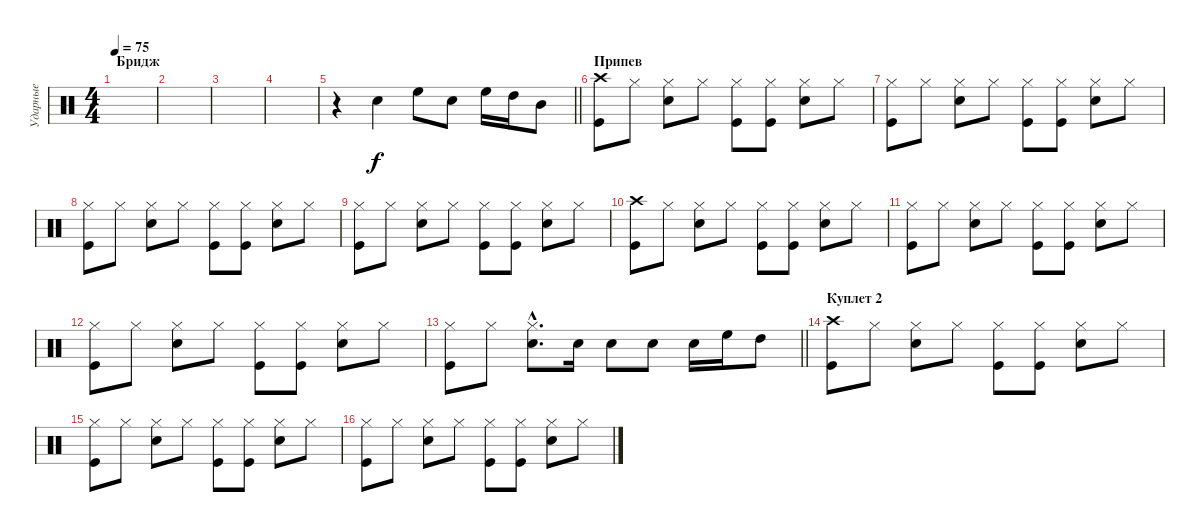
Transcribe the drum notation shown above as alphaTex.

\track ("Ударные" "Ударные") {instrument percussion}
\staff {score}
\articulation defaults
\ts (4 4)
\section ("" "Бридж")
\tempo 75
\clef neutral
\ks c
|
|
|
|
\barLineRight lightlight
r.4 "Snare (hit) 2".4 "High Floor Tom (hit)".8 "Snare (hit) 2".8 "High Floor Tom (hit)".16 "High Tom (hit)".16 "Mid Tom (hit)".8 |
\section ("" "Припев")
("Crash high (hit)" "Kick (hit)").8 "Hi-Hat (closed)".8 ("Hi-Hat (closed)" "Snare (hit) 2").8 "Hi-Hat (closed)".8 ("Hi-Hat (closed)" "Kick (hit)").8 ("Hi-Hat (closed)" "Kick (hit)").8 ("Hi-Hat (closed)" "Snare (hit) 2").8 "Hi-Hat (closed)".8 |
("Hi-Hat (closed)" "Kick (hit)").8 "Hi-Hat (closed)".8 ("Hi-Hat (closed)" "Snare (hit) 2").8 "Hi-Hat (closed)".8 ("Hi-Hat (closed)" "Kick (hit)").8 ("Hi-Hat (closed)" "Kick (hit)").8 ("Hi-Hat (closed)" "Snare (hit) 2").8 "Hi-Hat (closed)".8 |
("Hi-Hat (closed)" "Kick (hit)").8 "Hi-Hat (closed)".8 ("Hi-Hat (closed)" "Snare (hit) 2").8 "Hi-Hat (closed)".8 ("Hi-Hat (closed)" "Kick (hit)").8 ("Hi-Hat (closed)" "Kick (hit)").8 ("Hi-Hat (closed)" "Snare (hit) 2").8 "Hi-Hat (closed)".8 |
("Hi-Hat (closed)" "Kick (hit)").8 "Hi-Hat (closed)".8 ("Hi-Hat (closed)" "Snare (hit) 2").8 "Hi-Hat (closed)".8 ("Hi-Hat (closed)" "Kick (hit)").8 ("Hi-Hat (closed)" "Kick (hit)").8 ("Hi-Hat (closed)" "Snare (hit) 2").8 "Hi-Hat (closed)".8 |
("Crash high (hit)" "Kick (hit)").8 "Hi-Hat (closed)".8 ("Hi-Hat (closed)" "Snare (hit) 2").8 "Hi-Hat (closed)".8 ("Hi-Hat (closed)" "Kick (hit)").8 ("Hi-Hat (closed)" "Kick (hit)").8 ("Hi-Hat (closed)" "Snare (hit) 2").8 "Hi-Hat (closed)".8 |
("Hi-Hat (closed)" "Kick (hit)").8 "Hi-Hat (closed)".8 ("Hi-Hat (closed)" "Snare (hit) 2").8 "Hi-Hat (closed)".8 ("Hi-Hat (closed)" "Kick (hit)").8 ("Hi-Hat (closed)" "Kick (hit)").8 ("Hi-Hat (closed)" "Snare (hit) 2").8 "Hi-Hat (closed)".8 |
("Hi-Hat (closed)" "Kick (hit)").8 "Hi-Hat (closed)".8 ("Hi-Hat (closed)" "Snare (hit) 2").8 "Hi-Hat (closed)".8 ("Hi-Hat (closed)" "Kick (hit)").8 ("Hi-Hat (closed)" "Kick (hit)").8 ("Hi-Hat (closed)" "Snare (hit) 2").8 "Hi-Hat (closed)".8 |
\barLineRight lightlight
("Hi-Hat (closed)" "Kick (hit)").8 "Hi-Hat (closed)".8 ("Hi-Hat (closed)"{hac} "Snare (hit) 2"{hac}).8{d} "Snare (hit) 2".16 "Snare (hit) 2".8 "Snare (hit) 2".8 "Snare (hit) 2".16 "High Floor Tom (hit)".16 "High Tom (hit)".8 |
\section ("" "Куплет 2")
("Crash high (hit)" "Kick (hit)").8 "Hi-Hat (closed)".8 ("Hi-Hat (closed)" "Snare (hit) 2").8 "Hi-Hat (closed)".8 ("Hi-Hat (closed)" "Kick (hit)").8 ("Hi-Hat (closed)" "Kick (hit)").8 ("Hi-Hat (closed)" "Snare (hit) 2").8 "Hi-Hat (closed)".8 |
("Hi-Hat (closed)" "Kick (hit)").8 "Hi-Hat (closed)".8 ("Hi-Hat (closed)" "Snare (hit) 2").8 "Hi-Hat (closed)".8 ("Hi-Hat (closed)" "Kick (hit)").8 ("Hi-Hat (closed)" "Kick (hit)").8 ("Hi-Hat (closed)" "Snare (hit) 2").8 "Hi-Hat (closed)".8 |
("Hi-Hat (closed)" "Kick (hit)").8 "Hi-Hat (closed)".8 ("Hi-Hat (closed)" "Snare (hit) 2").8 "Hi-Hat (closed)".8 ("Hi-Hat (closed)" "Kick (hit)").8 ("Hi-Hat (closed)" "Kick (hit)").8 ("Hi-Hat (closed)" "Snare (hit) 2").8 "Hi-Hat (closed)".8
